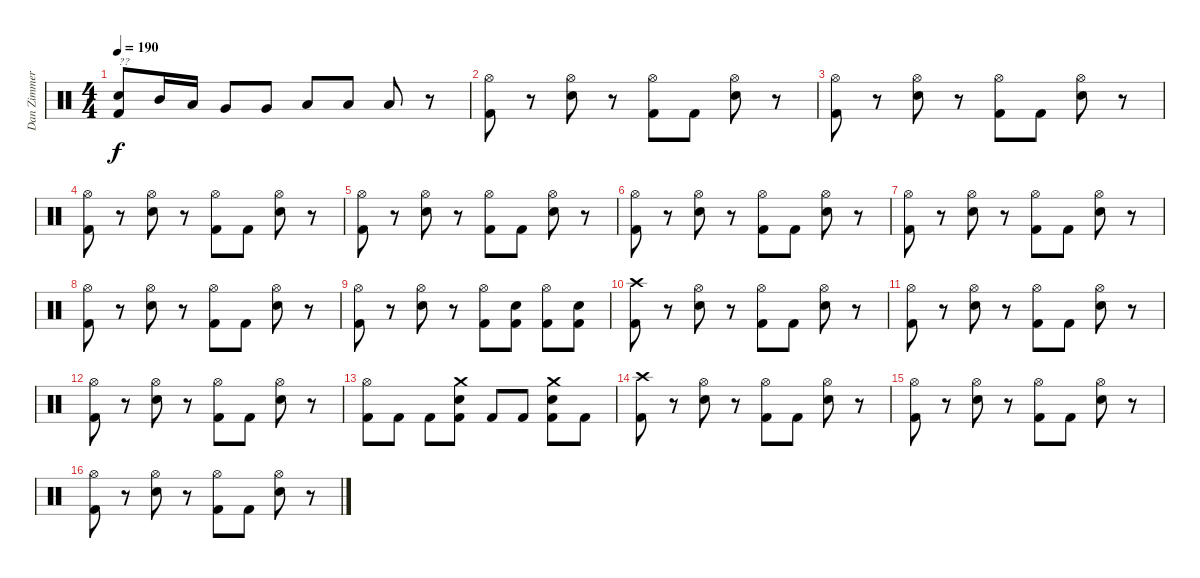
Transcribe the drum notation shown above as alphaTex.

\track ("Dan Zimmermann" "Dan Zimmer") {instrument percussion}
\staff {score}
\articulation defaults
\ts (4 4)
\tempo 190
\clef neutral
\ks c
("Electric Snare (hit)" "Kick (hit) 2").8{txt "??" dy f} "Mid Tom (hit)".16 "Low Tom (hit)".16 "Very Low Tom (hit)".8 "Very Low Tom (hit)".8 "Low Floor Tom (hit)".8 "Low Floor Tom (hit)".8 "Low Floor Tom (hit)".8 r.8 |
("Hi-Hat (open)" "Kick (hit) 2").8 r.8 ("Hi-Hat (open)" "Electric Snare (hit)").8 r.8 ("Hi-Hat (open)" "Kick (hit) 2").8 "Kick (hit) 2".8 ("Hi-Hat (open)" "Electric Snare (hit)").8 r.8 |
("Hi-Hat (open)" "Kick (hit) 2").8 r.8 ("Hi-Hat (open)" "Electric Snare (hit)").8 r.8 ("Hi-Hat (open)" "Kick (hit) 2").8 "Kick (hit) 2".8 ("Hi-Hat (open)" "Electric Snare (hit)").8 r.8 |
("Hi-Hat (open)" "Kick (hit) 2").8 r.8 ("Hi-Hat (open)" "Electric Snare (hit)").8 r.8 ("Hi-Hat (open)" "Kick (hit) 2").8 "Kick (hit) 2".8 ("Hi-Hat (open)" "Electric Snare (hit)").8 r.8 |
("Hi-Hat (open)" "Kick (hit) 2").8 r.8 ("Hi-Hat (open)" "Electric Snare (hit)").8 r.8 ("Hi-Hat (open)" "Kick (hit) 2").8 "Kick (hit) 2".8 ("Hi-Hat (open)" "Electric Snare (hit)").8 r.8 |
("Hi-Hat (open)" "Kick (hit) 2").8 r.8 ("Hi-Hat (open)" "Electric Snare (hit)").8 r.8 ("Hi-Hat (open)" "Kick (hit) 2").8 "Kick (hit) 2".8 ("Hi-Hat (open)" "Electric Snare (hit)").8 r.8 |
("Hi-Hat (open)" "Kick (hit) 2").8 r.8 ("Hi-Hat (open)" "Electric Snare (hit)").8 r.8 ("Hi-Hat (open)" "Kick (hit) 2").8 "Kick (hit) 2".8 ("Hi-Hat (open)" "Electric Snare (hit)").8 r.8 |
("Hi-Hat (open)" "Kick (hit) 2").8 r.8 ("Hi-Hat (open)" "Electric Snare (hit)").8 r.8 ("Hi-Hat (open)" "Kick (hit) 2").8 "Kick (hit) 2".8 ("Hi-Hat (open)" "Electric Snare (hit)").8 r.8 |
("Hi-Hat (open)" "Kick (hit) 2").8 r.8 ("Hi-Hat (open)" "Electric Snare (hit)").8 r.8 ("Hi-Hat (open)" "Kick (hit) 2").8 ("Electric Snare (hit)" "Kick (hit) 2").8 ("Hi-Hat (open)" "Kick (hit) 2").8 ("Electric Snare (hit)" "Kick (hit) 2").8 |
("Crash high (hit)" "Kick (hit) 2").8 r.8 ("Hi-Hat (open)" "Electric Snare (hit)").8 r.8 ("Hi-Hat (open)" "Kick (hit) 2").8 "Kick (hit) 2".8 ("Hi-Hat (open)" "Electric Snare (hit)").8 r.8 |
("Hi-Hat (open)" "Kick (hit) 2").8 r.8 ("Hi-Hat (open)" "Electric Snare (hit)").8 r.8 ("Hi-Hat (open)" "Kick (hit) 2").8 "Kick (hit) 2".8 ("Hi-Hat (open)" "Electric Snare (hit)").8 r.8 |
("Hi-Hat (open)" "Kick (hit) 2").8 r.8 ("Hi-Hat (open)" "Electric Snare (hit)").8 r.8 ("Hi-Hat (open)" "Kick (hit) 2").8 "Kick (hit) 2".8 ("Hi-Hat (open)" "Electric Snare (hit)").8 r.8 |
("Hi-Hat (open)" "Kick (hit) 2").8 "Kick (hit) 2".8 "Kick (hit) 2".8 ("Crash medium (hit)" "Electric Snare (hit)" "Kick (hit) 2").8 "Kick (hit) 2".8 "Kick (hit) 2".8 ("Crash medium (hit)" "Electric Snare (hit)" "Kick (hit) 2").8 "Kick (hit) 2".8 |
("Crash high (hit)" "Kick (hit) 2").8 r.8 ("Hi-Hat (open)" "Electric Snare (hit)").8 r.8 ("Hi-Hat (open)" "Kick (hit) 2").8 "Kick (hit) 2".8 ("Hi-Hat (open)" "Electric Snare (hit)").8 r.8 |
("Hi-Hat (open)" "Kick (hit) 2").8 r.8 ("Hi-Hat (open)" "Electric Snare (hit)").8 r.8 ("Hi-Hat (open)" "Kick (hit) 2").8 "Kick (hit) 2".8 ("Hi-Hat (open)" "Electric Snare (hit)").8 r.8 |
("Hi-Hat (open)" "Kick (hit) 2").8 r.8 ("Hi-Hat (open)" "Electric Snare (hit)").8 r.8 ("Hi-Hat (open)" "Kick (hit) 2").8 "Kick (hit) 2".8 ("Hi-Hat (open)" "Electric Snare (hit)").8 r.8
